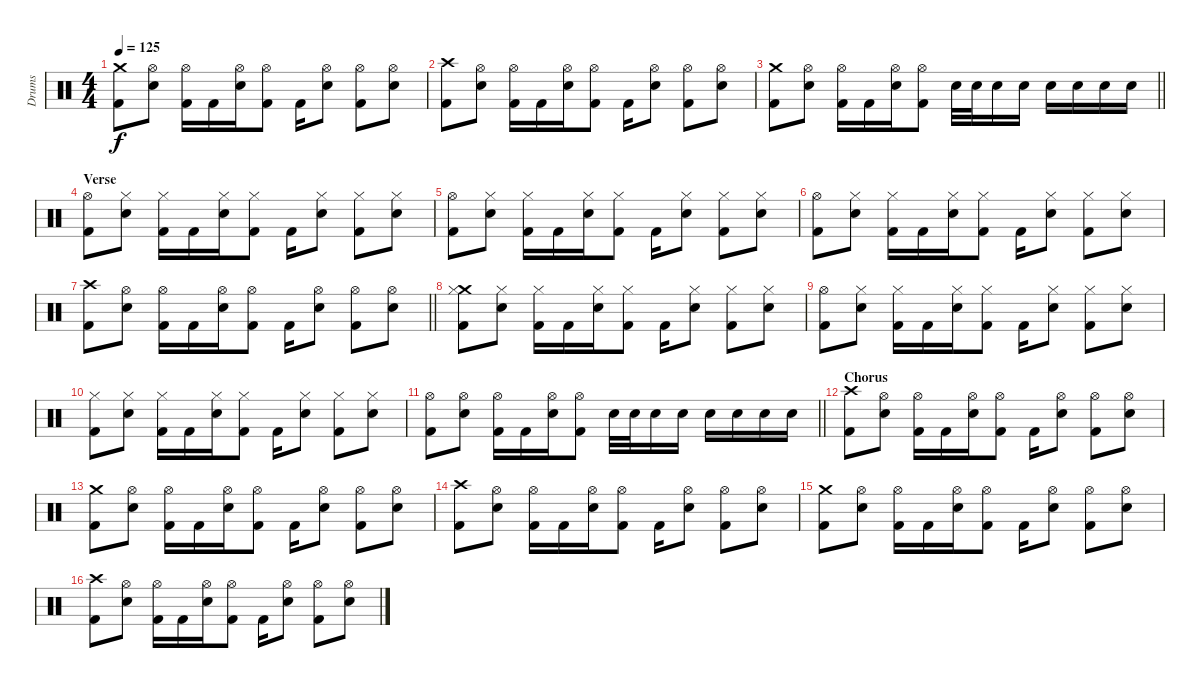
\track ("Drums" "Drums") {instrument percussion}
\staff {score}
\articulation defaults
\ts (4 4)
\tempo 125
\clef neutral
\ks c
("Crash medium (hit)" "Kick (hit) 2").8{dy f} ("Hi-Hat (open)" "Electric Snare (hit)").8 ("Hi-Hat (open)" "Kick (hit) 2").16 "Kick (hit) 2".16 ("Hi-Hat (open)" "Electric Snare (hit)").16 ("Hi-Hat (open)" "Kick (hit) 2").8 "Kick (hit) 2".16 ("Hi-Hat (open)" "Electric Snare (hit)").8 ("Hi-Hat (open)" "Kick (hit) 2").8 ("Hi-Hat (open)" "Electric Snare (hit)").8 |
("Crash high (hit)" "Kick (hit) 2").8 ("Hi-Hat (open)" "Electric Snare (hit)").8 ("Hi-Hat (open)" "Kick (hit) 2").16 "Kick (hit) 2".16 ("Hi-Hat (open)" "Electric Snare (hit)").16 ("Hi-Hat (open)" "Kick (hit) 2").8 "Kick (hit) 2".16 ("Hi-Hat (open)" "Electric Snare (hit)").8 ("Hi-Hat (open)" "Kick (hit) 2").8 ("Hi-Hat (open)" "Electric Snare (hit)").8 |
\barLineRight lightlight
("Crash medium (hit)" "Kick (hit) 2").8 ("Hi-Hat (open)" "Electric Snare (hit)").8 ("Hi-Hat (open)" "Kick (hit) 2").16 "Kick (hit) 2".16 ("Hi-Hat (open)" "Electric Snare (hit)").16 ("Hi-Hat (open)" "Kick (hit) 2").8 "Electric Snare (hit)".32 "Electric Snare (hit)".32 "Electric Snare (hit)".16 "Electric Snare (hit)".16 "Electric Snare (hit)".16 "Electric Snare (hit)".16 "Electric Snare (hit)".16 "Electric Snare (hit)".16 |
\section ("" "Verse")
("Hi-Hat (open)" "Kick (hit) 2").8 ("Hi-Hat (closed)" "Electric Snare (hit)").8 ("Hi-Hat (closed)" "Kick (hit) 2").16 "Kick (hit) 2".16 ("Hi-Hat (closed)" "Electric Snare (hit)").16 ("Hi-Hat (closed)" "Kick (hit) 2").8 "Kick (hit) 2".16 ("Hi-Hat (closed)" "Electric Snare (hit)").8 ("Hi-Hat (closed)" "Kick (hit) 2").8 ("Hi-Hat (closed)" "Electric Snare (hit)").8 |
("Hi-Hat (open)" "Kick (hit) 2").8 ("Hi-Hat (closed)" "Electric Snare (hit)").8 ("Hi-Hat (closed)" "Kick (hit) 2").16 "Kick (hit) 2".16 ("Hi-Hat (closed)" "Electric Snare (hit)").16 ("Hi-Hat (closed)" "Kick (hit) 2").8 "Kick (hit) 2".16 ("Hi-Hat (closed)" "Electric Snare (hit)").8 ("Hi-Hat (closed)" "Kick (hit) 2").8 ("Hi-Hat (closed)" "Electric Snare (hit)").8 |
("Hi-Hat (open)" "Kick (hit) 2").8 ("Hi-Hat (closed)" "Electric Snare (hit)").8 ("Hi-Hat (closed)" "Kick (hit) 2").16 "Kick (hit) 2".16 ("Hi-Hat (closed)" "Electric Snare (hit)").16 ("Hi-Hat (closed)" "Kick (hit) 2").8 "Kick (hit) 2".16 ("Hi-Hat (closed)" "Electric Snare (hit)").8 ("Hi-Hat (closed)" "Kick (hit) 2").8 ("Hi-Hat (closed)" "Electric Snare (hit)").8 |
\barLineRight lightlight
("Crash high (hit)" "Kick (hit) 2").8 ("Hi-Hat (open)" "Electric Snare (hit)").8 ("Hi-Hat (open)" "Kick (hit) 2").16 "Kick (hit) 2".16 ("Hi-Hat (open)" "Electric Snare (hit)").16 ("Hi-Hat (open)" "Kick (hit) 2").8 "Kick (hit) 2".16 ("Hi-Hat (open)" "Electric Snare (hit)").8 ("Hi-Hat (open)" "Kick (hit) 2").8 ("Hi-Hat (open)" "Electric Snare (hit)").8 |
("Crash medium (hit)" "Hi-Hat (closed)" "Kick (hit) 2").8 ("Hi-Hat (closed)" "Electric Snare (hit)").8 ("Hi-Hat (closed)" "Kick (hit) 2").16 "Kick (hit) 2".16 ("Hi-Hat (closed)" "Electric Snare (hit)").16 ("Hi-Hat (closed)" "Kick (hit) 2").8 "Kick (hit) 2".16 ("Hi-Hat (closed)" "Electric Snare (hit)").8 ("Hi-Hat (closed)" "Kick (hit) 2").8 ("Hi-Hat (closed)" "Electric Snare (hit)").8 |
("Hi-Hat (open)" "Kick (hit) 2").8 ("Hi-Hat (closed)" "Electric Snare (hit)").8 ("Hi-Hat (closed)" "Kick (hit) 2").16 "Kick (hit) 2".16 ("Hi-Hat (closed)" "Electric Snare (hit)").16 ("Hi-Hat (closed)" "Kick (hit) 2").8 "Kick (hit) 2".16 ("Hi-Hat (closed)" "Electric Snare (hit)").8 ("Hi-Hat (closed)" "Kick (hit) 2").8 ("Hi-Hat (closed)" "Electric Snare (hit)").8 |
("Hi-Hat (closed)" "Kick (hit) 2").8 ("Hi-Hat (closed)" "Electric Snare (hit)").8 ("Hi-Hat (closed)" "Kick (hit) 2").16 "Kick (hit) 2".16 ("Hi-Hat (closed)" "Electric Snare (hit)").16 ("Hi-Hat (closed)" "Kick (hit) 2").8 "Kick (hit) 2".16 ("Hi-Hat (closed)" "Electric Snare (hit)").8 ("Hi-Hat (closed)" "Kick (hit) 2").8 ("Hi-Hat (closed)" "Electric Snare (hit)").8 |
\barLineRight lightlight
("Hi-Hat (open)" "Kick (hit) 2").8 ("Hi-Hat (open)" "Electric Snare (hit)").8 ("Hi-Hat (open)" "Kick (hit) 2").16 "Kick (hit) 2".16 ("Hi-Hat (open)" "Electric Snare (hit)").16 ("Hi-Hat (open)" "Kick (hit) 2").8 "Electric Snare (hit)".32 "Electric Snare (hit)".32 "Electric Snare (hit)".16 "Electric Snare (hit)".16 "Electric Snare (hit)".16 "Electric Snare (hit)".16 "Electric Snare (hit)".16 "Electric Snare (hit)".16 |
\section ("" "Chorus")
("Crash high (hit)" "Kick (hit) 2").8 ("Hi-Hat (open)" "Electric Snare (hit)").8 ("Hi-Hat (open)" "Kick (hit) 2").16 "Kick (hit) 2".16 ("Hi-Hat (open)" "Electric Snare (hit)").16 ("Hi-Hat (open)" "Kick (hit) 2").8 "Kick (hit) 2".16 ("Hi-Hat (open)" "Electric Snare (hit)").8 ("Hi-Hat (open)" "Kick (hit) 2").8 ("Hi-Hat (open)" "Electric Snare (hit)").8 |
("Crash medium (hit)" "Kick (hit) 2").8 ("Hi-Hat (open)" "Electric Snare (hit)").8 ("Hi-Hat (open)" "Kick (hit) 2").16 "Kick (hit) 2".16 ("Hi-Hat (open)" "Electric Snare (hit)").16 ("Hi-Hat (open)" "Kick (hit) 2").8 "Kick (hit) 2".16 ("Hi-Hat (open)" "Electric Snare (hit)").8 ("Hi-Hat (open)" "Kick (hit) 2").8 ("Hi-Hat (open)" "Electric Snare (hit)").8 |
("Crash high (hit)" "Kick (hit) 2").8 ("Hi-Hat (open)" "Electric Snare (hit)").8 ("Hi-Hat (open)" "Kick (hit) 2").16 "Kick (hit) 2".16 ("Hi-Hat (open)" "Electric Snare (hit)").16 ("Hi-Hat (open)" "Kick (hit) 2").8 "Kick (hit) 2".16 ("Hi-Hat (open)" "Electric Snare (hit)").8 ("Hi-Hat (open)" "Kick (hit) 2").8 ("Hi-Hat (open)" "Electric Snare (hit)").8 |
("Crash medium (hit)" "Kick (hit) 2").8 ("Hi-Hat (open)" "Electric Snare (hit)").8 ("Hi-Hat (open)" "Kick (hit) 2").16 "Kick (hit) 2".16 ("Hi-Hat (open)" "Electric Snare (hit)").16 ("Hi-Hat (open)" "Kick (hit) 2").8 "Kick (hit) 2".16 ("Hi-Hat (open)" "Electric Snare (hit)").8 ("Hi-Hat (open)" "Kick (hit) 2").8 ("Hi-Hat (open)" "Electric Snare (hit)").8 |
("Crash high (hit)" "Kick (hit) 2").8 ("Hi-Hat (open)" "Electric Snare (hit)").8 ("Hi-Hat (open)" "Kick (hit) 2").16 "Kick (hit) 2".16 ("Hi-Hat (open)" "Electric Snare (hit)").16 ("Hi-Hat (open)" "Kick (hit) 2").8 "Kick (hit) 2".16 ("Hi-Hat (open)" "Electric Snare (hit)").8 ("Hi-Hat (open)" "Kick (hit) 2").8 ("Hi-Hat (open)" "Electric Snare (hit)").8
